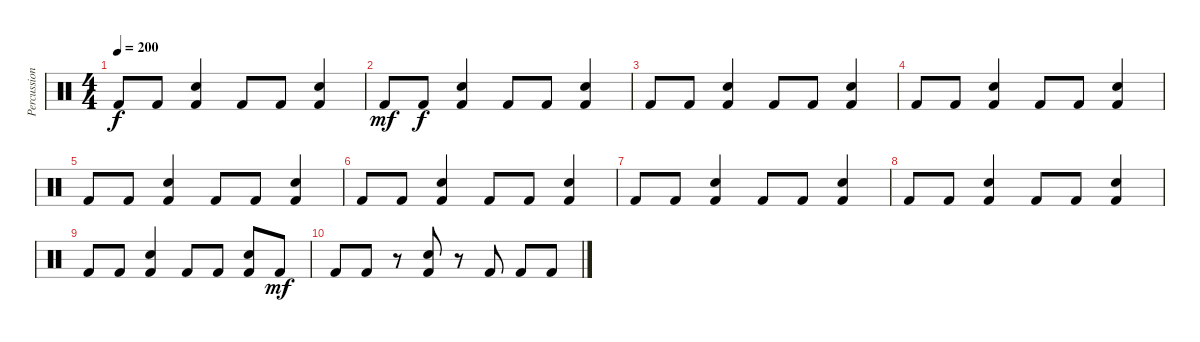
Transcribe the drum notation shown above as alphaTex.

\track ("Percussioni" "Percussion") {instrument percussion}
\staff {score}
\articulation defaults
\ts (4 4)
\tempo 200
\clef neutral
\ks c "Kick (hit) 2".8{dy f} "Kick (hit) 2".8
("Snare (hit) 2" "Kick (hit) 2").4 "Kick (hit) 2".8 "Kick (hit) 2".8 ("Snare (hit) 2" "Kick (hit) 2").4 |
"Kick (hit) 2".8{dy mf} "Kick (hit) 2".8{dy f} ("Snare (hit) 2" "Kick (hit) 2").4 "Kick (hit) 2".8 "Kick (hit) 2".8 ("Snare (hit) 2" "Kick (hit) 2").4 |
"Kick (hit) 2".8 "Kick (hit) 2".8 ("Snare (hit) 2" "Kick (hit) 2").4 "Kick (hit) 2".8 "Kick (hit) 2".8 ("Snare (hit) 2" "Kick (hit) 2").4 |
"Kick (hit) 2".8 "Kick (hit) 2".8 ("Snare (hit) 2" "Kick (hit) 2").4 "Kick (hit) 2".8 "Kick (hit) 2".8 ("Snare (hit) 2" "Kick (hit) 2").4 |
"Kick (hit) 2".8 "Kick (hit) 2".8 ("Snare (hit) 2" "Kick (hit) 2").4 "Kick (hit) 2".8 "Kick (hit) 2".8 ("Snare (hit) 2" "Kick (hit) 2").4 |
"Kick (hit) 2".8 "Kick (hit) 2".8 ("Snare (hit) 2" "Kick (hit) 2").4 "Kick (hit) 2".8 "Kick (hit) 2".8 ("Snare (hit) 2" "Kick (hit) 2").4 |
"Kick (hit) 2".8 "Kick (hit) 2".8 ("Snare (hit) 2" "Kick (hit) 2").4 "Kick (hit) 2".8 "Kick (hit) 2".8 ("Snare (hit) 2" "Kick (hit) 2").4 |
"Kick (hit) 2".8 "Kick (hit) 2".8 ("Snare (hit) 2" "Kick (hit) 2").4 "Kick (hit) 2".8 "Kick (hit) 2".8 ("Snare (hit) 2" "Kick (hit) 2").4 |
"Kick (hit) 2".8 "Kick (hit) 2".8 ("Snare (hit) 2" "Kick (hit) 2").4 "Kick (hit) 2".8 "Kick (hit) 2".8 ("Snare (hit) 2" "Kick (hit) 2").8 "Kick (hit) 2".8{dy mf} |
"Kick (hit) 2".8 "Kick (hit) 2".8 r.8 ("Kick (hit) 2" "Snare (hit) 2").8 r.8 "Kick (hit) 2".8 "Kick (hit) 2".8 "Kick (hit) 2".8
